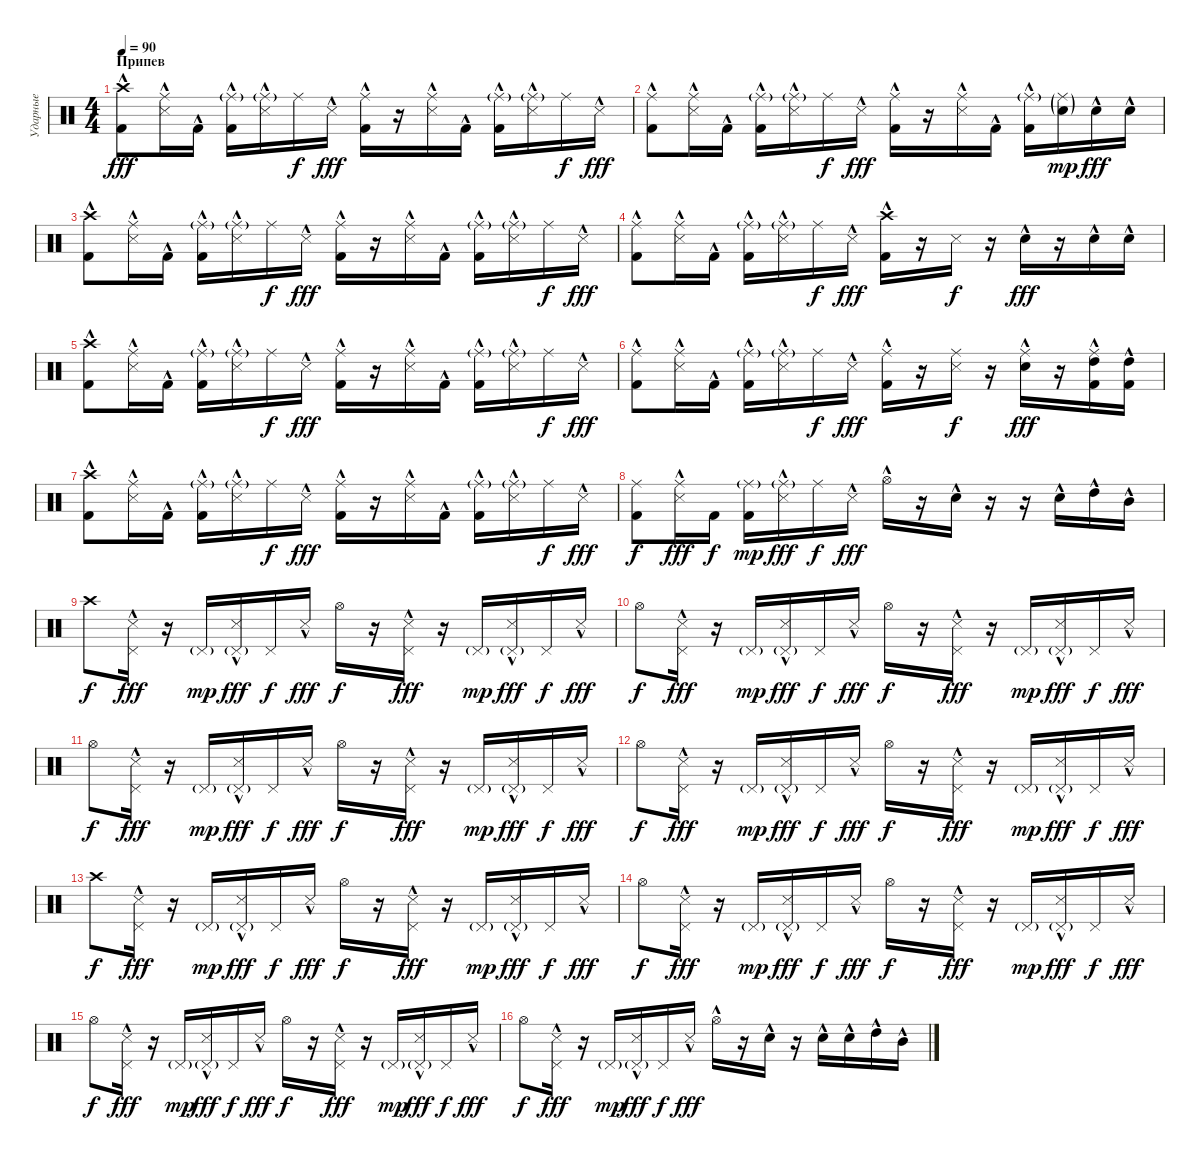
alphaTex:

\track ("Ударные" "Ударные") {instrument percussion}
\staff {score}
\articulation defaults
\ts (4 4)
\section ("" "Припев")
\tempo 90
\clef neutral
\ks c
("Crash high (hit)" "Kick (hit) 2"{hac}).8{dy fff} ("Ride (middle)" "Snare (side stick) 3"{hac}).16 "Kick (hit) 2"{hac}.16 ("Ride (middle)"{g} "Kick (hit) 2"{hac}).16 ("Ride (middle)"{g} "Snare (side stick) 3"{hac}).16 "Ride (middle)".16{dy f} "Snare (side stick) 3"{hac}.16{dy fff} ("Ride (middle)" "Kick (hit) 2"{hac}).16 r.16 ("Ride (middle)" "Snare (side stick) 3"{hac}).16 "Kick (hit) 2"{hac}.16 ("Ride (middle)"{g} "Kick (hit) 2"{hac}).16 ("Ride (middle)"{g} "Snare (side stick) 3"{hac}).16 "Ride (middle)".16{dy f} "Snare (side stick) 3"{hac}.16{dy fff} |
("Ride (middle)" "Kick (hit) 2"{hac}).8 ("Ride (middle)" "Snare (side stick) 3"{hac}).16 "Kick (hit) 2"{hac}.16 ("Ride (middle)"{g} "Kick (hit) 2"{hac}).16 ("Ride (middle)"{g} "Snare (side stick) 3"{hac}).16 "Ride (middle)".16{dy f} "Snare (side stick) 3"{hac}.16{dy fff} ("Ride (middle)" "Kick (hit) 2"{hac}).16 r.16 ("Ride (middle)" "Snare (side stick) 3"{hac}).16 "Kick (hit) 2"{hac}.16 ("Ride (middle)"{g} "Kick (hit) 2"{hac}).16 ("Ride (middle)"{g} "Electric Snare (hit)"{g}).16{dy mp} "Electric Snare (hit)"{hac}.16{dy fff} "Electric Snare (hit)"{hac}.16 |
("Crash high (hit)" "Kick (hit) 2"{hac}).8 ("Ride (middle)" "Snare (side stick) 3"{hac}).16 "Kick (hit) 2"{hac}.16 ("Ride (middle)"{g} "Kick (hit) 2"{hac}).16 ("Ride (middle)"{g} "Snare (side stick) 3"{hac}).16 "Ride (middle)".16{dy f} "Snare (side stick) 3"{hac}.16{dy fff} ("Ride (middle)" "Kick (hit) 2"{hac}).16 r.16 ("Ride (middle)" "Snare (side stick) 3"{hac}).16 "Kick (hit) 2"{hac}.16 ("Ride (middle)"{g} "Kick (hit) 2"{hac}).16 ("Ride (middle)"{g} "Snare (side stick) 3"{hac}).16 "Ride (middle)".16{dy f} "Snare (side stick) 3"{hac}.16{dy fff} |
("Ride (middle)" "Kick (hit) 2"{hac}).8 ("Ride (middle)" "Snare (side stick) 3"{hac}).16 "Kick (hit) 2"{hac}.16 ("Ride (middle)"{g} "Kick (hit) 2"{hac}).16 ("Ride (middle)"{g} "Snare (side stick) 3"{hac}).16 "Ride (middle)".16{dy f} "Snare (side stick) 3"{hac}.16{dy fff} ("Crash high (hit)" "Kick (hit) 2"{hac}).16 r.16 "Snare (side stick) 3".16{dy f} r.16 "Electric Snare (hit)"{hac}.16{dy fff} r.16 "Electric Snare (hit)"{hac}.16 "Electric Snare (hit)"{hac}.16 |
("Crash high (hit)" "Kick (hit) 2"{hac}).8 ("Ride (middle)" "Snare (side stick) 3"{hac}).16 "Kick (hit) 2"{hac}.16 ("Ride (middle)"{g} "Kick (hit) 2"{hac}).16 ("Ride (middle)"{g} "Snare (side stick) 3"{hac}).16 "Ride (middle)".16{dy f} "Snare (side stick) 3"{hac}.16{dy fff} ("Ride (middle)" "Kick (hit) 2"{hac}).16 r.16 ("Ride (middle)" "Snare (side stick) 3"{hac}).16 "Kick (hit) 2"{hac}.16 ("Ride (middle)"{g} "Kick (hit) 2"{hac}).16 ("Ride (middle)"{g} "Snare (side stick) 3"{hac}).16 "Ride (middle)".16{dy f} "Snare (side stick) 3"{hac}.16{dy fff} |
("Ride (middle)" "Kick (hit) 2"{hac}).8 ("Ride (middle)" "Snare (side stick) 3"{hac}).16 "Kick (hit) 2"{hac}.16 ("Ride (middle)"{g} "Kick (hit) 2"{hac}).16 ("Ride (middle)"{g} "Snare (side stick) 3"{hac}).16 "Ride (middle)".16{dy f} "Snare (side stick) 3"{hac}.16{dy fff} ("Ride (middle)" "Kick (hit) 2"{hac}).16 r.16 ("Ride (middle)" "Snare (side stick) 3").16{dy f} r.16 ("Ride (middle)" "Electric Snare (hit)"{hac}).16{dy fff} r.16 ("Ride (middle)" "High Tom (hit)" "Kick (hit) 2"{hac}).16 ("High Tom (hit)" "Kick (hit) 2"{hac}).16 |
("Crash high (hit)" "Kick (hit) 2"{hac}).8 ("Ride (middle)" "Snare (side stick) 3"{hac}).16 "Kick (hit) 2"{hac}.16 ("Ride (middle)"{g} "Kick (hit) 2"{hac}).16 ("Ride (middle)"{g} "Snare (side stick) 3"{hac}).16 "Ride (middle)".16{dy f} "Snare (side stick) 3"{hac}.16{dy fff} ("Ride (middle)" "Kick (hit) 2"{hac}).16 r.16 ("Ride (middle)" "Snare (side stick) 3"{hac}).16 "Kick (hit) 2"{hac}.16 ("Ride (middle)"{g} "Kick (hit) 2"{hac}).16 ("Ride (middle)"{g} "Snare (side stick) 3"{hac}).16 "Ride (middle)".16{dy f} "Snare (side stick) 3"{hac}.16{dy fff} |
("Ride (middle)" "Kick (hit) 2").8{dy f} ("Ride (middle)" "Snare (side stick) 3"{hac}).16{dy fff} "Kick (hit) 2".16{dy f} ("Ride (middle)"{g} "Kick (hit) 2").16{dy mp} ("Ride (middle)"{g} "Snare (side stick) 3"{hac}).16{dy fff} "Ride (middle)".16{dy f} "Snare (side stick) 3"{hac}.16{dy fff} "Hi-Hat (open)"{hac}.16 r.16 "Electric Snare (hit)"{hac}.16 r.16 r.16 "Electric Snare (hit)"{hac}.16 "High Tom (hit)"{hac}.16 "Mid Tom (hit)"{hac}.16 |
"Crash high (hit)".8{dy f} ("Pedal Hi-Hat (hit)" "Snare (side stick) 3"{hac}).16{dy fff} r.16 "Pedal Hi-Hat (hit)"{g}.16{dy mp} ("Pedal Hi-Hat (hit)"{g} "Snare (side stick) 3"{hac}).16{dy fff} "Pedal Hi-Hat (hit)".16{dy f} "Snare (side stick) 3"{hac}.16{dy fff} "Hi-Hat (open)".16{dy f} r.16 ("Pedal Hi-Hat (hit)" "Snare (side stick) 3"{hac}).16{dy fff} r.16 "Pedal Hi-Hat (hit)"{g}.16{dy mp} ("Pedal Hi-Hat (hit)"{g} "Snare (side stick) 3"{hac}).16{dy fff} "Pedal Hi-Hat (hit)".16{dy f} "Snare (side stick) 3"{hac}.16{dy fff} |
"Hi-Hat (open)".8{dy f} ("Pedal Hi-Hat (hit)" "Snare (side stick) 3"{hac}).16{dy fff} r.16 "Pedal Hi-Hat (hit)"{g}.16{dy mp} ("Pedal Hi-Hat (hit)"{g} "Snare (side stick) 3"{hac}).16{dy fff} "Pedal Hi-Hat (hit)".16{dy f} "Snare (side stick) 3"{hac}.16{dy fff} "Hi-Hat (open)".16{dy f} r.16 ("Pedal Hi-Hat (hit)" "Snare (side stick) 3"{hac}).16{dy fff} r.16 "Pedal Hi-Hat (hit)"{g}.16{dy mp} ("Pedal Hi-Hat (hit)"{g} "Snare (side stick) 3"{hac}).16{dy fff} "Pedal Hi-Hat (hit)".16{dy f} "Snare (side stick) 3"{hac}.16{dy fff} |
"Hi-Hat (open)".8{dy f} ("Pedal Hi-Hat (hit)" "Snare (side stick) 3"{hac}).16{dy fff} r.16 "Pedal Hi-Hat (hit)"{g}.16{dy mp} ("Pedal Hi-Hat (hit)"{g} "Snare (side stick) 3"{hac}).16{dy fff} "Pedal Hi-Hat (hit)".16{dy f} "Snare (side stick) 3"{hac}.16{dy fff} "Hi-Hat (open)".16{dy f} r.16 ("Pedal Hi-Hat (hit)" "Snare (side stick) 3"{hac}).16{dy fff} r.16 "Pedal Hi-Hat (hit)"{g}.16{dy mp} ("Pedal Hi-Hat (hit)"{g} "Snare (side stick) 3"{hac}).16{dy fff} "Pedal Hi-Hat (hit)".16{dy f} "Snare (side stick) 3"{hac}.16{dy fff} |
"Hi-Hat (open)".8{dy f} ("Pedal Hi-Hat (hit)" "Snare (side stick) 3"{hac}).16{dy fff} r.16 "Pedal Hi-Hat (hit)"{g}.16{dy mp} ("Pedal Hi-Hat (hit)"{g} "Snare (side stick) 3"{hac}).16{dy fff} "Pedal Hi-Hat (hit)".16{dy f} "Snare (side stick) 3"{hac}.16{dy fff} "Hi-Hat (open)".16{dy f} r.16 ("Pedal Hi-Hat (hit)" "Snare (side stick) 3"{hac}).16{dy fff} r.16 "Pedal Hi-Hat (hit)"{g}.16{dy mp} ("Pedal Hi-Hat (hit)"{g} "Snare (side stick) 3"{hac}).16{dy fff} "Pedal Hi-Hat (hit)".16{dy f} "Snare (side stick) 3"{hac}.16{dy fff} |
"Crash high (hit)".8{dy f} ("Pedal Hi-Hat (hit)" "Snare (side stick) 3"{hac}).16{dy fff} r.16 "Pedal Hi-Hat (hit)"{g}.16{dy mp} ("Pedal Hi-Hat (hit)"{g} "Snare (side stick) 3"{hac}).16{dy fff} "Pedal Hi-Hat (hit)".16{dy f} "Snare (side stick) 3"{hac}.16{dy fff} "Hi-Hat (open)".16{dy f} r.16 ("Pedal Hi-Hat (hit)" "Snare (side stick) 3"{hac}).16{dy fff} r.16 "Pedal Hi-Hat (hit)"{g}.16{dy mp} ("Pedal Hi-Hat (hit)"{g} "Snare (side stick) 3"{hac}).16{dy fff} "Pedal Hi-Hat (hit)".16{dy f} "Snare (side stick) 3"{hac}.16{dy fff} |
"Hi-Hat (open)".8{dy f} ("Pedal Hi-Hat (hit)" "Snare (side stick) 3"{hac}).16{dy fff} r.16 "Pedal Hi-Hat (hit)"{g}.16{dy mp} ("Pedal Hi-Hat (hit)"{g} "Snare (side stick) 3"{hac}).16{dy fff} "Pedal Hi-Hat (hit)".16{dy f} "Snare (side stick) 3"{hac}.16{dy fff} "Hi-Hat (open)".16{dy f} r.16 ("Pedal Hi-Hat (hit)" "Snare (side stick) 3"{hac}).16{dy fff} r.16 "Pedal Hi-Hat (hit)"{g}.16{dy mp} ("Pedal Hi-Hat (hit)"{g} "Snare (side stick) 3"{hac}).16{dy fff} "Pedal Hi-Hat (hit)".16{dy f} "Snare (side stick) 3"{hac}.16{dy fff} |
"Hi-Hat (open)".8{dy f} ("Pedal Hi-Hat (hit)" "Snare (side stick) 3"{hac}).16{dy fff} r.16 "Pedal Hi-Hat (hit)"{g}.16{dy mp} ("Pedal Hi-Hat (hit)"{g} "Snare (side stick) 3"{hac}).16{dy fff} "Pedal Hi-Hat (hit)".16{dy f} "Snare (side stick) 3"{hac}.16{dy fff} "Hi-Hat (open)".16{dy f} r.16 ("Pedal Hi-Hat (hit)" "Snare (side stick) 3"{hac}).16{dy fff} r.16 "Pedal Hi-Hat (hit)"{g}.16{dy mp} ("Pedal Hi-Hat (hit)"{g} "Snare (side stick) 3"{hac}).16{dy fff} "Pedal Hi-Hat (hit)".16{dy f} "Snare (side stick) 3"{hac}.16{dy fff} |
"Hi-Hat (open)".8{dy f} ("Pedal Hi-Hat (hit)" "Snare (side stick) 3"{hac}).16{dy fff} r.16 "Pedal Hi-Hat (hit)"{g}.16{dy mp} ("Pedal Hi-Hat (hit)"{g} "Snare (side stick) 3"{hac}).16{dy fff} "Pedal Hi-Hat (hit)".16{dy f} "Snare (side stick) 3"{hac}.16{dy fff} "Hi-Hat (open)"{hac}.16 r.16 "Electric Snare (hit)"{hac}.16 r.16 "Electric Snare (hit)"{hac}.16 "Electric Snare (hit)"{hac}.16 "High Tom (hit)"{hac}.16 "Mid Tom (hit)"{hac}.16
